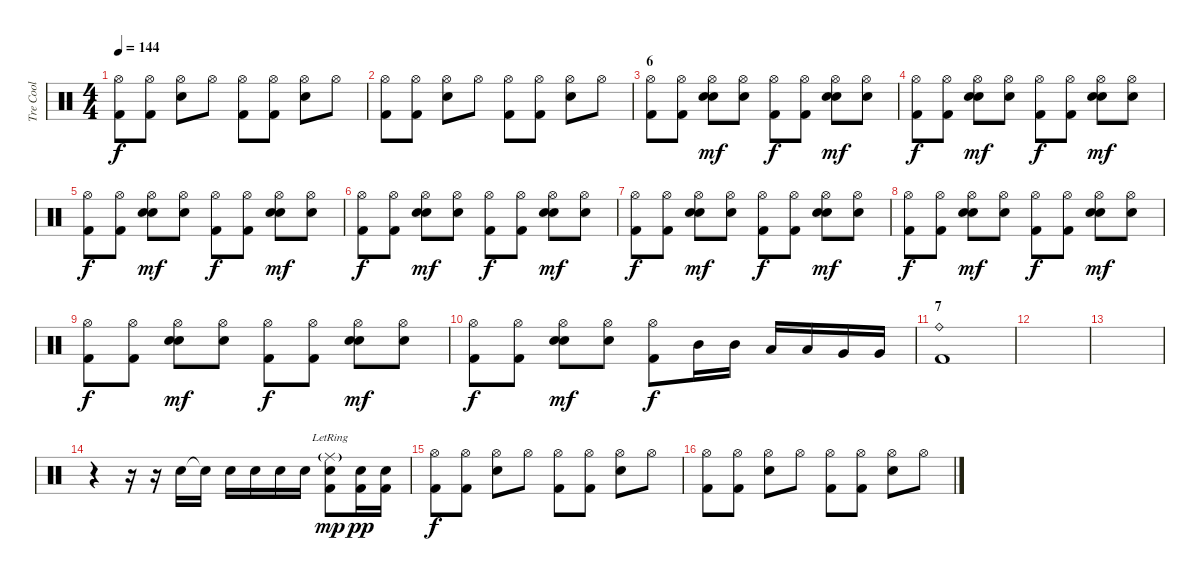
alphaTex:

\track ("Tre Cool" "Tre Cool") {instrument percussion}
\staff {score}
\articulation defaults
\ts (4 4)
\tempo 144
\clef neutral
\ks c
("Hi-Hat (open)" "Kick (hit) 2").8{dy f} ("Hi-Hat (open)" "Kick (hit) 2").8 ("Hi-Hat (open)" "Electric Snare (hit)").8 "Hi-Hat (open)".8 ("Hi-Hat (open)" "Kick (hit) 2").8 ("Hi-Hat (open)" "Kick (hit) 2").8 ("Hi-Hat (open)" "Electric Snare (hit)").8 "Hi-Hat (open)".8 |
("Hi-Hat (open)" "Kick (hit) 2").8 ("Hi-Hat (open)" "Kick (hit) 2").8 ("Hi-Hat (open)" "Electric Snare (hit)").8 "Hi-Hat (open)".8 ("Hi-Hat (open)" "Kick (hit) 2").8 ("Hi-Hat (open)" "Kick (hit) 2").8 ("Hi-Hat (open)" "Electric Snare (hit)").8 "Hi-Hat (open)".8 |
\section ("" "6")
("Hi-Hat (open)" "Kick (hit) 2").8 ("Hi-Hat (open)" "Kick (hit) 2").8 ("Hi-Hat (open)" "Hand Clap (hit)" "Electric Snare (hit)").8{dy mf} ("Hi-Hat (open)" "Hand Clap (hit)").8 ("Hi-Hat (open)" "Kick (hit) 2").8{dy f} ("Hi-Hat (open)" "Kick (hit) 2").8 ("Hi-Hat (open)" "Hand Clap (hit)" "Electric Snare (hit)").8{dy mf} ("Hi-Hat (open)" "Hand Clap (hit)").8 |
("Hi-Hat (open)" "Kick (hit) 2").8{dy f} ("Hi-Hat (open)" "Kick (hit) 2").8 ("Hi-Hat (open)" "Hand Clap (hit)" "Electric Snare (hit)").8{dy mf} ("Hi-Hat (open)" "Hand Clap (hit)").8 ("Hi-Hat (open)" "Kick (hit) 2").8{dy f} ("Hi-Hat (open)" "Kick (hit) 2").8 ("Hi-Hat (open)" "Hand Clap (hit)" "Electric Snare (hit)").8{dy mf} ("Hi-Hat (open)" "Hand Clap (hit)").8 |
("Hi-Hat (open)" "Kick (hit) 2").8{dy f} ("Hi-Hat (open)" "Kick (hit) 2").8 ("Hi-Hat (open)" "Hand Clap (hit)" "Electric Snare (hit)").8{dy mf} ("Hi-Hat (open)" "Hand Clap (hit)").8 ("Hi-Hat (open)" "Kick (hit) 2").8{dy f} ("Hi-Hat (open)" "Kick (hit) 2").8 ("Hi-Hat (open)" "Hand Clap (hit)" "Electric Snare (hit)").8{dy mf} ("Hi-Hat (open)" "Hand Clap (hit)").8 |
("Hi-Hat (open)" "Kick (hit) 2").8{dy f} ("Hi-Hat (open)" "Kick (hit) 2").8 ("Hi-Hat (open)" "Hand Clap (hit)" "Electric Snare (hit)").8{dy mf} ("Hi-Hat (open)" "Hand Clap (hit)").8 ("Hi-Hat (open)" "Kick (hit) 2").8{dy f} ("Hi-Hat (open)" "Kick (hit) 2").8 ("Hi-Hat (open)" "Hand Clap (hit)" "Electric Snare (hit)").8{dy mf} ("Hi-Hat (open)" "Hand Clap (hit)").8 |
("Hi-Hat (open)" "Kick (hit) 2").8{dy f} ("Hi-Hat (open)" "Kick (hit) 2").8 ("Hi-Hat (open)" "Hand Clap (hit)" "Electric Snare (hit)").8{dy mf} ("Hi-Hat (open)" "Hand Clap (hit)").8 ("Hi-Hat (open)" "Kick (hit) 2").8{dy f} ("Hi-Hat (open)" "Kick (hit) 2").8 ("Hi-Hat (open)" "Hand Clap (hit)" "Electric Snare (hit)").8{dy mf} ("Hi-Hat (open)" "Hand Clap (hit)").8 |
("Hi-Hat (open)" "Kick (hit) 2").8{dy f} ("Hi-Hat (open)" "Kick (hit) 2").8 ("Hi-Hat (open)" "Hand Clap (hit)" "Electric Snare (hit)").8{dy mf} ("Hi-Hat (open)" "Hand Clap (hit)").8 ("Hi-Hat (open)" "Kick (hit) 2").8{dy f} ("Hi-Hat (open)" "Kick (hit) 2").8 ("Hi-Hat (open)" "Hand Clap (hit)" "Electric Snare (hit)").8{dy mf} ("Hi-Hat (open)" "Hand Clap (hit)").8 |
("Hi-Hat (open)" "Kick (hit) 2").8{dy f} ("Hi-Hat (open)" "Kick (hit) 2").8 ("Hi-Hat (open)" "Hand Clap (hit)" "Electric Snare (hit)").8{dy mf} ("Hi-Hat (open)" "Hand Clap (hit)").8 ("Hi-Hat (open)" "Kick (hit) 2").8{dy f} ("Hi-Hat (open)" "Kick (hit) 2").8 ("Hi-Hat (open)" "Hand Clap (hit)" "Electric Snare (hit)").8{dy mf} ("Hi-Hat (open)" "Hand Clap (hit)").8 |
("Hi-Hat (open)" "Kick (hit) 2").8{dy f} ("Hi-Hat (open)" "Kick (hit) 2").8 ("Hi-Hat (open)" "Hand Clap (hit)" "Electric Snare (hit)").8{dy mf} ("Hi-Hat (open)" "Hand Clap (hit)").8 ("Hi-Hat (open)" "Kick (hit) 2").8{dy f} "Mid Tom (hit)".16 "Mid Tom (hit)".16 "Low Tom (hit)".16 "Low Tom (hit)".16 "Very Low Tom (hit)".16 "Very Low Tom (hit)".16 |
\section ("" "7")
("Ride (bell)" "Kick (hit) 2").1 |
|
|
r.4 r.16 r.16 "Electric Snare (hit)".16 "Electric Snare (hit)"{t}.16 "Electric Snare (hit)".16 "Electric Snare (hit)".16 "Electric Snare (hit)".16 "Electric Snare (hit)".16 ("Electric Snare (hit)" "Kick (hit) 2" "Ride (middle)"{g lr}).8{dy mp} ("Electric Snare (hit)" "Kick (hit) 2").16{dy pp} ("Electric Snare (hit)" "Kick (hit) 2").16 |
("Hi-Hat (open)" "Kick (hit) 2").8{dy f} ("Hi-Hat (open)" "Kick (hit) 2").8 ("Hi-Hat (open)" "Electric Snare (hit)").8 "Hi-Hat (open)".8 ("Hi-Hat (open)" "Kick (hit) 2").8 ("Hi-Hat (open)" "Kick (hit) 2").8 ("Hi-Hat (open)" "Electric Snare (hit)").8 "Hi-Hat (open)".8 |
("Hi-Hat (open)" "Kick (hit) 2").8 ("Hi-Hat (open)" "Kick (hit) 2").8 ("Hi-Hat (open)" "Electric Snare (hit)").8 "Hi-Hat (open)".8 ("Hi-Hat (open)" "Kick (hit) 2").8 ("Hi-Hat (open)" "Kick (hit) 2").8 ("Hi-Hat (open)" "Electric Snare (hit)").8 "Hi-Hat (open)".8
